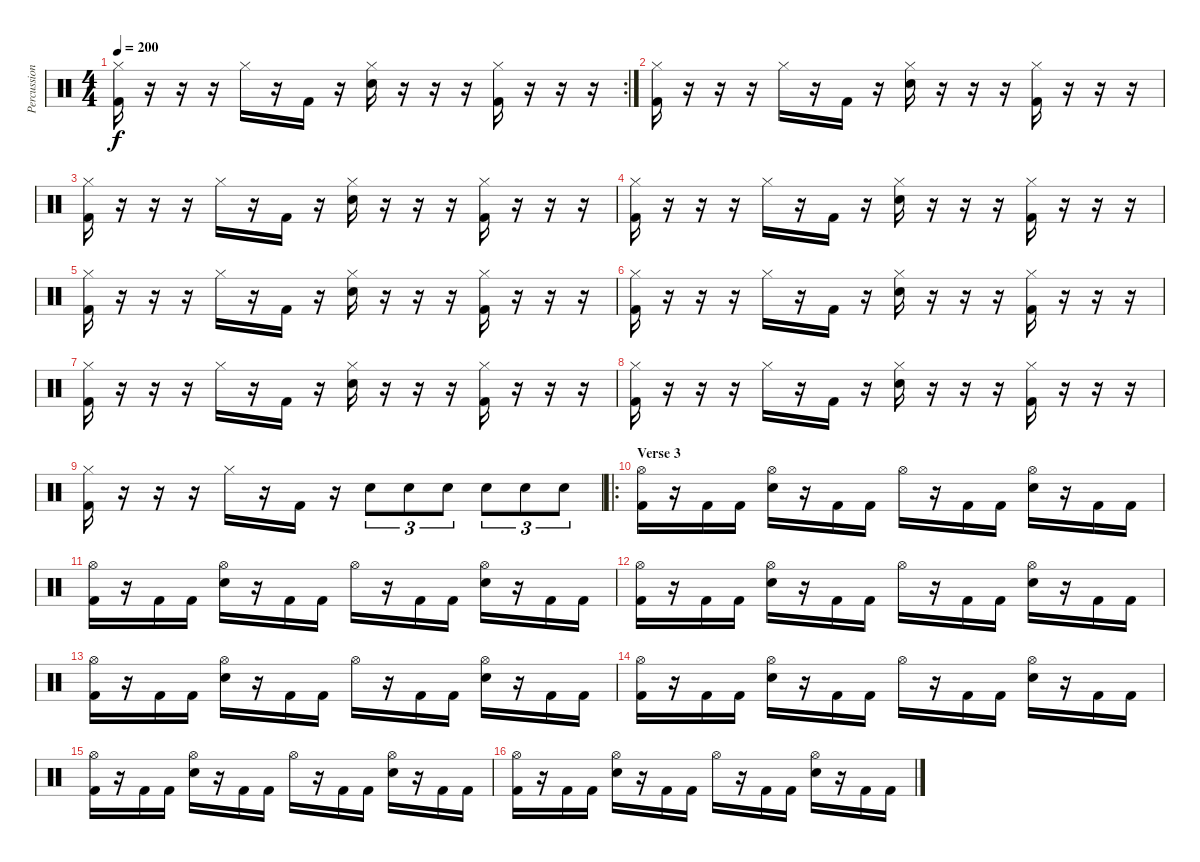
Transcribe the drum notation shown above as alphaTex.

\track ("Percussion" "Percussion") {instrument percussion}
\staff {score}
\articulation defaults
\rc 2
\ts (4 4)
\tempo 200
\clef neutral
\ks c
("Hi-Hat (closed)" "Kick (hit) 2").16{dy f} r.16 r.16 r.16 "Hi-Hat (closed)".16 r.16 "Kick (hit) 2".16 r.16 ("Hi-Hat (closed)" "Electric Snare (hit)").16 r.16 r.16 r.16 ("Hi-Hat (closed)" "Kick (hit) 2").16 r.16 r.16 r.16 |
("Hi-Hat (closed)" "Kick (hit) 2").16 r.16 r.16 r.16 "Hi-Hat (closed)".16 r.16 "Kick (hit) 2".16 r.16 ("Hi-Hat (closed)" "Electric Snare (hit)").16 r.16 r.16 r.16 ("Hi-Hat (closed)" "Kick (hit) 2").16 r.16 r.16 r.16 |
("Hi-Hat (closed)" "Kick (hit) 2").16 r.16 r.16 r.16 "Hi-Hat (closed)".16 r.16 "Kick (hit) 2".16 r.16 ("Hi-Hat (closed)" "Electric Snare (hit)").16 r.16 r.16 r.16 ("Hi-Hat (closed)" "Kick (hit) 2").16 r.16 r.16 r.16 |
("Hi-Hat (closed)" "Kick (hit) 2").16 r.16 r.16 r.16 "Hi-Hat (closed)".16 r.16 "Kick (hit) 2".16 r.16 ("Hi-Hat (closed)" "Electric Snare (hit)").16 r.16 r.16 r.16 ("Hi-Hat (closed)" "Kick (hit) 2").16 r.16 r.16 r.16 |
("Hi-Hat (closed)" "Kick (hit) 2").16 r.16 r.16 r.16 "Hi-Hat (closed)".16 r.16 "Kick (hit) 2".16 r.16 ("Hi-Hat (closed)" "Electric Snare (hit)").16 r.16 r.16 r.16 ("Hi-Hat (closed)" "Kick (hit) 2").16 r.16 r.16 r.16 |
("Hi-Hat (closed)" "Kick (hit) 2").16 r.16 r.16 r.16 "Hi-Hat (closed)".16 r.16 "Kick (hit) 2".16 r.16 ("Hi-Hat (closed)" "Electric Snare (hit)").16 r.16 r.16 r.16 ("Hi-Hat (closed)" "Kick (hit) 2").16 r.16 r.16 r.16 |
("Hi-Hat (closed)" "Kick (hit) 2").16 r.16 r.16 r.16 "Hi-Hat (closed)".16 r.16 "Kick (hit) 2".16 r.16 ("Hi-Hat (closed)" "Electric Snare (hit)").16 r.16 r.16 r.16 ("Hi-Hat (closed)" "Kick (hit) 2").16 r.16 r.16 r.16 |
("Hi-Hat (closed)" "Kick (hit) 2").16 r.16 r.16 r.16 "Hi-Hat (closed)".16 r.16 "Kick (hit) 2".16 r.16 ("Hi-Hat (closed)" "Electric Snare (hit)").16 r.16 r.16 r.16 ("Hi-Hat (closed)" "Kick (hit) 2").16 r.16 r.16 r.16 |
("Hi-Hat (closed)" "Kick (hit) 2").16 r.16 r.16 r.16 "Hi-Hat (closed)".16 r.16 "Kick (hit) 2".16 r.16 "Electric Snare (hit)".8{tu (3 2)} "Electric Snare (hit)".8{tu (3 2)} "Electric Snare (hit)".8{tu (3 2)} "Electric Snare (hit)".8{tu (3 2)} "Electric Snare (hit)".8{tu (3 2)} "Electric Snare (hit)".8{tu (3 2)} |
\ro
\section ("" "Verse 3")
("Hi-Hat (open)" "Kick (hit) 2").16 r.16 "Kick (hit) 2".16 "Kick (hit) 2".16 ("Hi-Hat (open)" "Electric Snare (hit)").16 r.16 "Kick (hit) 2".16 "Kick (hit) 2".16 "Hi-Hat (open)".16 r.16 "Kick (hit) 2".16 "Kick (hit) 2".16 ("Hi-Hat (open)" "Electric Snare (hit)").16 r.16 "Kick (hit) 2".16 "Kick (hit) 2".16 |
("Hi-Hat (open)" "Kick (hit) 2").16 r.16 "Kick (hit) 2".16 "Kick (hit) 2".16 ("Hi-Hat (open)" "Electric Snare (hit)").16 r.16 "Kick (hit) 2".16 "Kick (hit) 2".16 "Hi-Hat (open)".16 r.16 "Kick (hit) 2".16 "Kick (hit) 2".16 ("Hi-Hat (open)" "Electric Snare (hit)").16 r.16 "Kick (hit) 2".16 "Kick (hit) 2".16 |
("Hi-Hat (open)" "Kick (hit) 2").16 r.16 "Kick (hit) 2".16 "Kick (hit) 2".16 ("Hi-Hat (open)" "Electric Snare (hit)").16 r.16 "Kick (hit) 2".16 "Kick (hit) 2".16 "Hi-Hat (open)".16 r.16 "Kick (hit) 2".16 "Kick (hit) 2".16 ("Hi-Hat (open)" "Electric Snare (hit)").16 r.16 "Kick (hit) 2".16 "Kick (hit) 2".16 |
("Hi-Hat (open)" "Kick (hit) 2").16 r.16 "Kick (hit) 2".16 "Kick (hit) 2".16 ("Hi-Hat (open)" "Electric Snare (hit)").16 r.16 "Kick (hit) 2".16 "Kick (hit) 2".16 "Hi-Hat (open)".16 r.16 "Kick (hit) 2".16 "Kick (hit) 2".16 ("Hi-Hat (open)" "Electric Snare (hit)").16 r.16 "Kick (hit) 2".16 "Kick (hit) 2".16 |
("Hi-Hat (open)" "Kick (hit) 2").16 r.16 "Kick (hit) 2".16 "Kick (hit) 2".16 ("Hi-Hat (open)" "Electric Snare (hit)").16 r.16 "Kick (hit) 2".16 "Kick (hit) 2".16 "Hi-Hat (open)".16 r.16 "Kick (hit) 2".16 "Kick (hit) 2".16 ("Hi-Hat (open)" "Electric Snare (hit)").16 r.16 "Kick (hit) 2".16 "Kick (hit) 2".16 |
("Hi-Hat (open)" "Kick (hit) 2").16 r.16 "Kick (hit) 2".16 "Kick (hit) 2".16 ("Hi-Hat (open)" "Electric Snare (hit)").16 r.16 "Kick (hit) 2".16 "Kick (hit) 2".16 "Hi-Hat (open)".16 r.16 "Kick (hit) 2".16 "Kick (hit) 2".16 ("Hi-Hat (open)" "Electric Snare (hit)").16 r.16 "Kick (hit) 2".16 "Kick (hit) 2".16 |
("Hi-Hat (open)" "Kick (hit) 2").16 r.16 "Kick (hit) 2".16 "Kick (hit) 2".16 ("Hi-Hat (open)" "Electric Snare (hit)").16 r.16 "Kick (hit) 2".16 "Kick (hit) 2".16 "Hi-Hat (open)".16 r.16 "Kick (hit) 2".16 "Kick (hit) 2".16 ("Hi-Hat (open)" "Electric Snare (hit)").16 r.16 "Kick (hit) 2".16 "Kick (hit) 2".16
